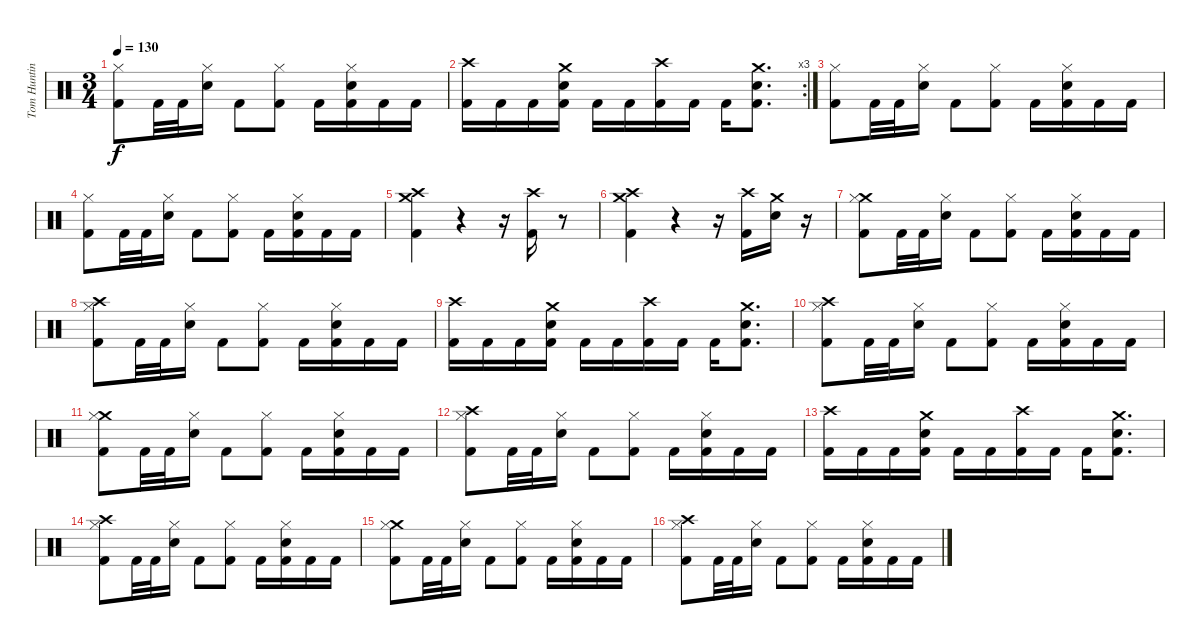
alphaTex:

\track ("Tom Hunting" "Tom Huntin") {instrument percussion}
\staff {score}
\articulation defaults
\ts (3 4)
\tempo 130
\clef neutral
\ks c
("Hi-Hat (closed)" "Kick (hit) 2").8{dy f} "Kick (hit) 2".32 "Kick (hit) 2".32 ("Hi-Hat (closed)" "Electric Snare (hit)").16 "Kick (hit) 2".8 ("Hi-Hat (closed)" "Kick (hit) 2").8 "Kick (hit) 2".16 ("Hi-Hat (closed)" "Electric Snare (hit)" "Kick (hit) 2").16 "Kick (hit) 2".16 "Kick (hit) 2".16 |
\rc 3
("Crash high (hit)" "Kick (hit) 2").16 "Kick (hit) 2".16 "Kick (hit) 2".16 ("Crash medium (hit)" "Electric Snare (hit)" "Kick (hit) 2").16 "Kick (hit) 2".16 "Kick (hit) 2".16 ("Crash high (hit)" "Kick (hit) 2").16 "Kick (hit) 2".16 "Kick (hit) 2".16 ("Crash medium (hit)" "Electric Snare (hit)" "Kick (hit) 2").8{d} |
("Hi-Hat (closed)" "Kick (hit) 2").8 "Kick (hit) 2".32 "Kick (hit) 2".32 ("Hi-Hat (closed)" "Electric Snare (hit)").16 "Kick (hit) 2".8 ("Hi-Hat (closed)" "Kick (hit) 2").8 "Kick (hit) 2".16 ("Hi-Hat (closed)" "Electric Snare (hit)" "Kick (hit) 2").16 "Kick (hit) 2".16 "Kick (hit) 2".16 |
("Hi-Hat (closed)" "Kick (hit) 2").8 "Kick (hit) 2".32 "Kick (hit) 2".32 ("Hi-Hat (closed)" "Electric Snare (hit)").16 "Kick (hit) 2".8 ("Hi-Hat (closed)" "Kick (hit) 2").8 "Kick (hit) 2".16 ("Hi-Hat (closed)" "Electric Snare (hit)" "Kick (hit) 2").16 "Kick (hit) 2".16 "Kick (hit) 2".16 |
("Crash medium (hit)" "Crash high (hit)" "Kick (hit) 2").4 r.4 r.16 ("Crash high (hit)" "Kick (hit) 2").16 r.8 |
("Crash medium (hit)" "Crash high (hit)" "Kick (hit) 2").4 r.4 r.16 ("Crash high (hit)" "Kick (hit) 2").16 ("Crash medium (hit)" "Electric Snare (hit)").16 r.16 |
("Crash medium (hit)" "Hi-Hat (closed)" "Kick (hit) 2").8 "Kick (hit) 2".32 "Kick (hit) 2".32 ("Hi-Hat (closed)" "Electric Snare (hit)").16 "Kick (hit) 2".8 ("Hi-Hat (closed)" "Kick (hit) 2").8 "Kick (hit) 2".16 ("Hi-Hat (closed)" "Electric Snare (hit)" "Kick (hit) 2").16 "Kick (hit) 2".16 "Kick (hit) 2".16 |
("Crash high (hit)" "Hi-Hat (closed)" "Kick (hit) 2").8 "Kick (hit) 2".32 "Kick (hit) 2".32 ("Hi-Hat (closed)" "Electric Snare (hit)").16 "Kick (hit) 2".8 ("Hi-Hat (closed)" "Kick (hit) 2").8 "Kick (hit) 2".16 ("Hi-Hat (closed)" "Electric Snare (hit)" "Kick (hit) 2").16 "Kick (hit) 2".16 "Kick (hit) 2".16 |
("Crash high (hit)" "Kick (hit) 2").16 "Kick (hit) 2".16 "Kick (hit) 2".16 ("Crash medium (hit)" "Electric Snare (hit)" "Kick (hit) 2").16 "Kick (hit) 2".16 "Kick (hit) 2".16 ("Crash high (hit)" "Kick (hit) 2").16 "Kick (hit) 2".16 "Kick (hit) 2".16 ("Crash medium (hit)" "Electric Snare (hit)" "Kick (hit) 2").8{d} |
("Crash high (hit)" "Hi-Hat (closed)" "Kick (hit) 2").8 "Kick (hit) 2".32 "Kick (hit) 2".32 ("Hi-Hat (closed)" "Electric Snare (hit)").16 "Kick (hit) 2".8 ("Hi-Hat (closed)" "Kick (hit) 2").8 "Kick (hit) 2".16 ("Hi-Hat (closed)" "Electric Snare (hit)" "Kick (hit) 2").16 "Kick (hit) 2".16 "Kick (hit) 2".16 |
("Crash medium (hit)" "Hi-Hat (closed)" "Kick (hit) 2").8 "Kick (hit) 2".32 "Kick (hit) 2".32 ("Hi-Hat (closed)" "Electric Snare (hit)").16 "Kick (hit) 2".8 ("Hi-Hat (closed)" "Kick (hit) 2").8 "Kick (hit) 2".16 ("Hi-Hat (closed)" "Electric Snare (hit)" "Kick (hit) 2").16 "Kick (hit) 2".16 "Kick (hit) 2".16 |
("Crash high (hit)" "Hi-Hat (closed)" "Kick (hit) 2").8 "Kick (hit) 2".32 "Kick (hit) 2".32 ("Hi-Hat (closed)" "Electric Snare (hit)").16 "Kick (hit) 2".8 ("Hi-Hat (closed)" "Kick (hit) 2").8 "Kick (hit) 2".16 ("Hi-Hat (closed)" "Electric Snare (hit)" "Kick (hit) 2").16 "Kick (hit) 2".16 "Kick (hit) 2".16 |
("Crash high (hit)" "Kick (hit) 2").16 "Kick (hit) 2".16 "Kick (hit) 2".16 ("Crash medium (hit)" "Electric Snare (hit)" "Kick (hit) 2").16 "Kick (hit) 2".16 "Kick (hit) 2".16 ("Crash high (hit)" "Kick (hit) 2").16 "Kick (hit) 2".16 "Kick (hit) 2".16 ("Crash medium (hit)" "Electric Snare (hit)" "Kick (hit) 2").8{d} |
("Crash high (hit)" "Hi-Hat (closed)" "Kick (hit) 2").8 "Kick (hit) 2".32 "Kick (hit) 2".32 ("Hi-Hat (closed)" "Electric Snare (hit)").16 "Kick (hit) 2".8 ("Hi-Hat (closed)" "Kick (hit) 2").8 "Kick (hit) 2".16 ("Hi-Hat (closed)" "Electric Snare (hit)" "Kick (hit) 2").16 "Kick (hit) 2".16 "Kick (hit) 2".16 |
("Crash medium (hit)" "Hi-Hat (closed)" "Kick (hit) 2").8 "Kick (hit) 2".32 "Kick (hit) 2".32 ("Hi-Hat (closed)" "Electric Snare (hit)").16 "Kick (hit) 2".8 ("Hi-Hat (closed)" "Kick (hit) 2").8 "Kick (hit) 2".16 ("Hi-Hat (closed)" "Electric Snare (hit)" "Kick (hit) 2").16 "Kick (hit) 2".16 "Kick (hit) 2".16 |
("Crash high (hit)" "Hi-Hat (closed)" "Kick (hit) 2").8 "Kick (hit) 2".32 "Kick (hit) 2".32 ("Hi-Hat (closed)" "Electric Snare (hit)").16 "Kick (hit) 2".8 ("Hi-Hat (closed)" "Kick (hit) 2").8 "Kick (hit) 2".16 ("Hi-Hat (closed)" "Electric Snare (hit)" "Kick (hit) 2").16 "Kick (hit) 2".16 "Kick (hit) 2".16
